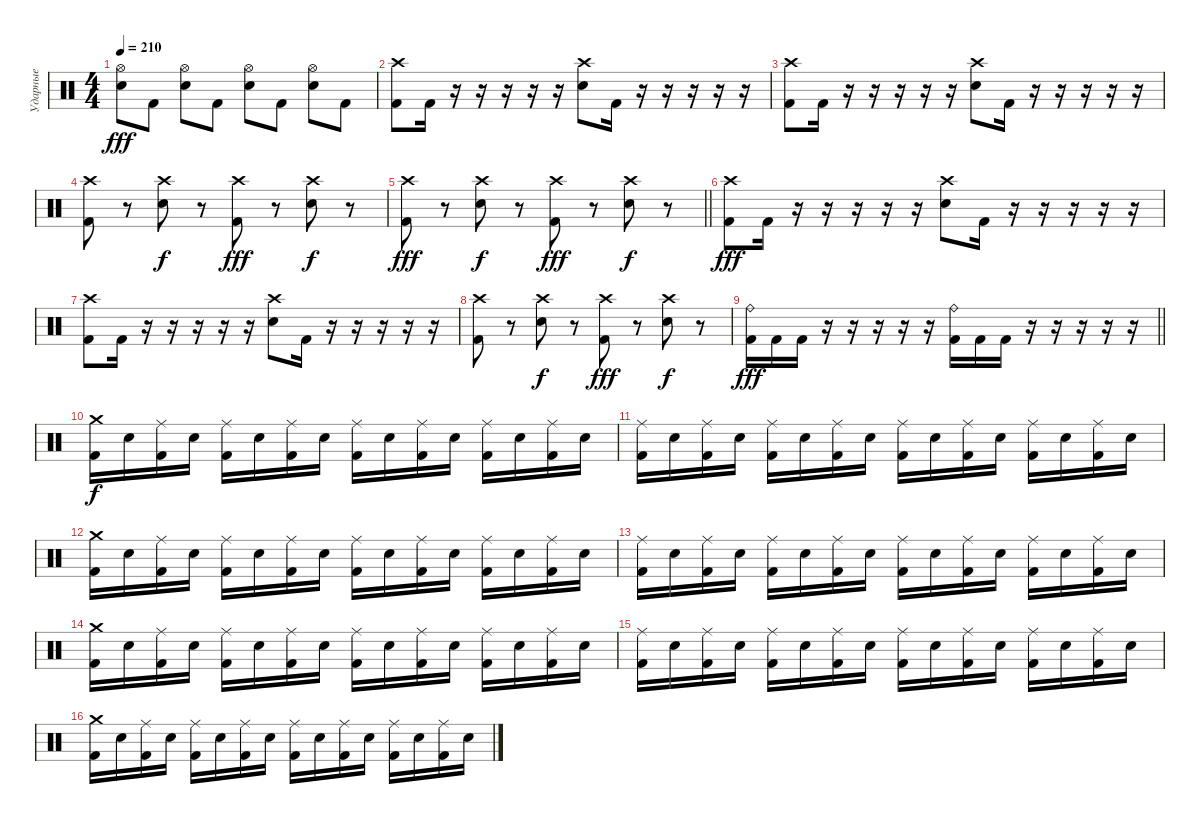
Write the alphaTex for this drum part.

\track ("Ударные" "Ударные") {instrument percussion}
\staff {score}
\articulation defaults
\ts (4 4)
\tempo 210
\clef neutral
\ks c
("Hi-Hat (open)" "Electric Snare (hit)").8{dy fff} "Kick (hit) 2".8 ("Hi-Hat (open)" "Electric Snare (hit)").8 "Kick (hit) 2".8 ("Hi-Hat (open)" "Electric Snare (hit)").8 "Kick (hit) 2".8 ("Hi-Hat (open)" "Electric Snare (hit)").8 "Kick (hit) 2".8 |
("Crash high (hit)" "Kick (hit) 2").8 "Kick (hit) 2".16 r.16 r.16 r.16 r.16 r.16 ("Crash high (hit)" "Electric Snare (hit)").8 "Kick (hit) 2".16 r.16 r.16 r.16 r.16 r.16 |
("Crash high (hit)" "Kick (hit) 2").8 "Kick (hit) 2".16 r.16 r.16 r.16 r.16 r.16 ("Crash high (hit)" "Electric Snare (hit)").8 "Kick (hit) 2".16 r.16 r.16 r.16 r.16 r.16 |
("Crash high (hit)" "Kick (hit) 2").8 r.8 ("Crash high (hit)" "Electric Snare (hit)").8{dy f} r.8 ("Crash high (hit)" "Kick (hit) 2").8{dy fff} r.8 ("Crash high (hit)" "Electric Snare (hit)").8{dy f} r.8 |
\barLineRight lightlight
("Crash high (hit)" "Kick (hit) 2").8{dy fff} r.8 ("Crash high (hit)" "Electric Snare (hit)").8{dy f} r.8 ("Crash high (hit)" "Kick (hit) 2").8{dy fff} r.8 ("Crash high (hit)" "Electric Snare (hit)").8{dy f} r.8 |
("Crash high (hit)" "Kick (hit) 2").8{dy fff} "Kick (hit) 2".16 r.16 r.16 r.16 r.16 r.16 ("Crash high (hit)" "Electric Snare (hit)").8 "Kick (hit) 2".16 r.16 r.16 r.16 r.16 r.16 |
("Crash high (hit)" "Kick (hit) 2").8 "Kick (hit) 2".16 r.16 r.16 r.16 r.16 r.16 ("Crash high (hit)" "Electric Snare (hit)").8 "Kick (hit) 2".16 r.16 r.16 r.16 r.16 r.16 |
("Crash high (hit)" "Kick (hit) 2").8 r.8 ("Crash high (hit)" "Electric Snare (hit)").8{dy f} r.8 ("Crash high (hit)" "Kick (hit) 2").8{dy fff} r.8 ("Crash high (hit)" "Electric Snare (hit)").8{dy f} r.8 |
\barLineRight lightlight
("Ride (bell)" "Kick (hit) 2").16{dy fff} "Kick (hit) 2".16 "Kick (hit) 2".16 r.16 r.16 r.16 r.16 r.16 ("Ride (bell)" "Kick (hit) 2").16 "Kick (hit) 2".16 "Kick (hit) 2".16 r.16 r.16 r.16 r.16 r.16 |
("Crash medium (hit)" "Kick (hit) 2").16{dy f} "Electric Snare (hit)".16 ("Ride (middle)" "Kick (hit) 2").16 "Electric Snare (hit)".16 ("Ride (middle)" "Kick (hit) 2").16 "Electric Snare (hit)".16 ("Ride (middle)" "Kick (hit) 2").16 "Electric Snare (hit)".16 ("Ride (middle)" "Kick (hit) 2").16 "Electric Snare (hit)".16 ("Ride (middle)" "Kick (hit) 2").16 "Electric Snare (hit)".16 ("Ride (middle)" "Kick (hit) 2").16 "Electric Snare (hit)".16 ("Ride (middle)" "Kick (hit) 2").16 "Electric Snare (hit)".16 |
("Ride (middle)" "Kick (hit) 2").16 "Electric Snare (hit)".16 ("Ride (middle)" "Kick (hit) 2").16 "Electric Snare (hit)".16 ("Ride (middle)" "Kick (hit) 2").16 "Electric Snare (hit)".16 ("Ride (middle)" "Kick (hit) 2").16 "Electric Snare (hit)".16 ("Ride (middle)" "Kick (hit) 2").16 "Electric Snare (hit)".16 ("Ride (middle)" "Kick (hit) 2").16 "Electric Snare (hit)".16 ("Ride (middle)" "Kick (hit) 2").16 "Electric Snare (hit)".16 ("Ride (middle)" "Kick (hit) 2").16 "Electric Snare (hit)".16 |
("Crash medium (hit)" "Kick (hit) 2").16 "Electric Snare (hit)".16 ("Ride (middle)" "Kick (hit) 2").16 "Electric Snare (hit)".16 ("Ride (middle)" "Kick (hit) 2").16 "Electric Snare (hit)".16 ("Ride (middle)" "Kick (hit) 2").16 "Electric Snare (hit)".16 ("Ride (middle)" "Kick (hit) 2").16 "Electric Snare (hit)".16 ("Ride (middle)" "Kick (hit) 2").16 "Electric Snare (hit)".16 ("Ride (middle)" "Kick (hit) 2").16 "Electric Snare (hit)".16 ("Ride (middle)" "Kick (hit) 2").16 "Electric Snare (hit)".16 |
("Ride (middle)" "Kick (hit) 2").16 "Electric Snare (hit)".16 ("Ride (middle)" "Kick (hit) 2").16 "Electric Snare (hit)".16 ("Ride (middle)" "Kick (hit) 2").16 "Electric Snare (hit)".16 ("Ride (middle)" "Kick (hit) 2").16 "Electric Snare (hit)".16 ("Ride (middle)" "Kick (hit) 2").16 "Electric Snare (hit)".16 ("Ride (middle)" "Kick (hit) 2").16 "Electric Snare (hit)".16 ("Ride (middle)" "Kick (hit) 2").16 "Electric Snare (hit)".16 ("Ride (middle)" "Kick (hit) 2").16 "Electric Snare (hit)".16 |
("Crash medium (hit)" "Kick (hit) 2").16 "Electric Snare (hit)".16 ("Ride (middle)" "Kick (hit) 2").16 "Electric Snare (hit)".16 ("Ride (middle)" "Kick (hit) 2").16 "Electric Snare (hit)".16 ("Ride (middle)" "Kick (hit) 2").16 "Electric Snare (hit)".16 ("Ride (middle)" "Kick (hit) 2").16 "Electric Snare (hit)".16 ("Ride (middle)" "Kick (hit) 2").16 "Electric Snare (hit)".16 ("Ride (middle)" "Kick (hit) 2").16 "Electric Snare (hit)".16 ("Ride (middle)" "Kick (hit) 2").16 "Electric Snare (hit)".16 |
("Ride (middle)" "Kick (hit) 2").16 "Electric Snare (hit)".16 ("Ride (middle)" "Kick (hit) 2").16 "Electric Snare (hit)".16 ("Ride (middle)" "Kick (hit) 2").16 "Electric Snare (hit)".16 ("Ride (middle)" "Kick (hit) 2").16 "Electric Snare (hit)".16 ("Ride (middle)" "Kick (hit) 2").16 "Electric Snare (hit)".16 ("Ride (middle)" "Kick (hit) 2").16 "Electric Snare (hit)".16 ("Ride (middle)" "Kick (hit) 2").16 "Electric Snare (hit)".16 ("Ride (middle)" "Kick (hit) 2").16 "Electric Snare (hit)".16 |
("Crash medium (hit)" "Kick (hit) 2").16 "Electric Snare (hit)".16 ("Ride (middle)" "Kick (hit) 2").16 "Electric Snare (hit)".16 ("Ride (middle)" "Kick (hit) 2").16 "Electric Snare (hit)".16 ("Ride (middle)" "Kick (hit) 2").16 "Electric Snare (hit)".16 ("Ride (middle)" "Kick (hit) 2").16 "Electric Snare (hit)".16 ("Ride (middle)" "Kick (hit) 2").16 "Electric Snare (hit)".16 ("Ride (middle)" "Kick (hit) 2").16 "Electric Snare (hit)".16 ("Ride (middle)" "Kick (hit) 2").16 "Electric Snare (hit)".16
